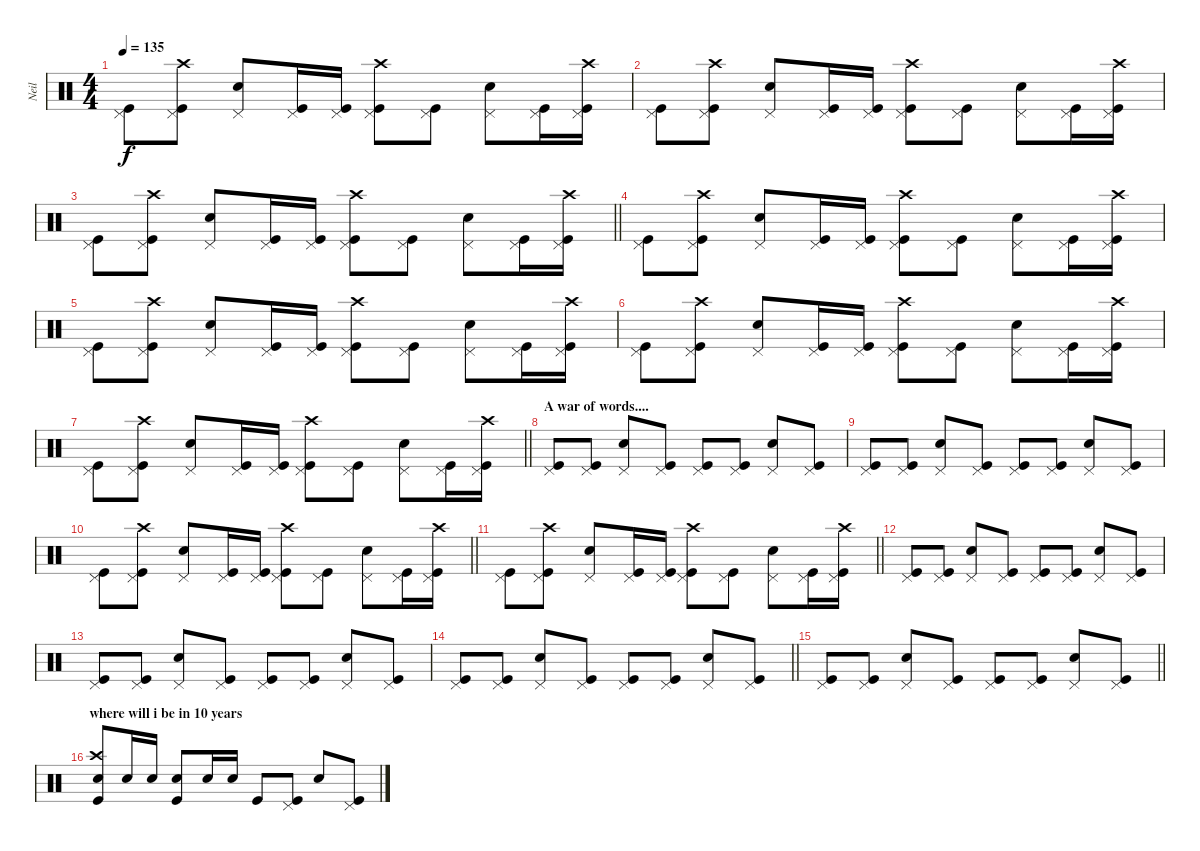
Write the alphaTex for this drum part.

\track ("Neil" "Neil") {instrument percussion}
\staff {score}
\articulation defaults
\ts (4 4)
\tempo 135
\clef neutral
\ks c
("Pedal Hi-Hat (hit)" "Kick (hit)").8{dy f} ("Crash high (hit)" "Pedal Hi-Hat (hit)" "Kick (hit)").8 ("Pedal Hi-Hat (hit)" "Snare (hit) 2").8 ("Pedal Hi-Hat (hit)" "Kick (hit)").16 ("Pedal Hi-Hat (hit)" "Kick (hit)").16 ("Crash high (hit)" "Pedal Hi-Hat (hit)" "Kick (hit)").8 ("Pedal Hi-Hat (hit)" "Kick (hit)").8 ("Pedal Hi-Hat (hit)" "Snare (hit) 2").8 ("Pedal Hi-Hat (hit)" "Kick (hit)").16 ("Crash high (hit)" "Pedal Hi-Hat (hit)" "Kick (hit)").16 |
("Pedal Hi-Hat (hit)" "Kick (hit)").8 ("Crash high (hit)" "Pedal Hi-Hat (hit)" "Kick (hit)").8 ("Pedal Hi-Hat (hit)" "Snare (hit) 2").8 ("Pedal Hi-Hat (hit)" "Kick (hit)").16 ("Pedal Hi-Hat (hit)" "Kick (hit)").16 ("Crash high (hit)" "Pedal Hi-Hat (hit)" "Kick (hit)").8 ("Pedal Hi-Hat (hit)" "Kick (hit)").8 ("Pedal Hi-Hat (hit)" "Snare (hit) 2").8 ("Pedal Hi-Hat (hit)" "Kick (hit)").16 ("Crash high (hit)" "Pedal Hi-Hat (hit)" "Kick (hit)").16 |
\barLineRight lightlight
("Pedal Hi-Hat (hit)" "Kick (hit)").8 ("Crash high (hit)" "Pedal Hi-Hat (hit)" "Kick (hit)").8 ("Pedal Hi-Hat (hit)" "Snare (hit) 2").8 ("Pedal Hi-Hat (hit)" "Kick (hit)").16 ("Pedal Hi-Hat (hit)" "Kick (hit)").16 ("Crash high (hit)" "Pedal Hi-Hat (hit)" "Kick (hit)").8 ("Pedal Hi-Hat (hit)" "Kick (hit)").8 ("Pedal Hi-Hat (hit)" "Snare (hit) 2").8 ("Pedal Hi-Hat (hit)" "Kick (hit)").16 ("Crash high (hit)" "Pedal Hi-Hat (hit)" "Kick (hit)").16 |
("Pedal Hi-Hat (hit)" "Kick (hit)").8 ("Crash high (hit)" "Pedal Hi-Hat (hit)" "Kick (hit)").8 ("Pedal Hi-Hat (hit)" "Snare (hit) 2").8 ("Pedal Hi-Hat (hit)" "Kick (hit)").16 ("Pedal Hi-Hat (hit)" "Kick (hit)").16 ("Crash high (hit)" "Pedal Hi-Hat (hit)" "Kick (hit)").8 ("Pedal Hi-Hat (hit)" "Kick (hit)").8 ("Pedal Hi-Hat (hit)" "Snare (hit) 2").8 ("Pedal Hi-Hat (hit)" "Kick (hit)").16 ("Crash high (hit)" "Pedal Hi-Hat (hit)" "Kick (hit)").16 |
("Pedal Hi-Hat (hit)" "Kick (hit)").8 ("Crash high (hit)" "Pedal Hi-Hat (hit)" "Kick (hit)").8 ("Pedal Hi-Hat (hit)" "Snare (hit) 2").8 ("Pedal Hi-Hat (hit)" "Kick (hit)").16 ("Pedal Hi-Hat (hit)" "Kick (hit)").16 ("Crash high (hit)" "Pedal Hi-Hat (hit)" "Kick (hit)").8 ("Pedal Hi-Hat (hit)" "Kick (hit)").8 ("Pedal Hi-Hat (hit)" "Snare (hit) 2").8 ("Pedal Hi-Hat (hit)" "Kick (hit)").16 ("Crash high (hit)" "Pedal Hi-Hat (hit)" "Kick (hit)").16 |
("Pedal Hi-Hat (hit)" "Kick (hit)").8 ("Crash high (hit)" "Pedal Hi-Hat (hit)" "Kick (hit)").8 ("Pedal Hi-Hat (hit)" "Snare (hit) 2").8 ("Pedal Hi-Hat (hit)" "Kick (hit)").16 ("Pedal Hi-Hat (hit)" "Kick (hit)").16 ("Crash high (hit)" "Pedal Hi-Hat (hit)" "Kick (hit)").8 ("Pedal Hi-Hat (hit)" "Kick (hit)").8 ("Pedal Hi-Hat (hit)" "Snare (hit) 2").8 ("Pedal Hi-Hat (hit)" "Kick (hit)").16 ("Crash high (hit)" "Pedal Hi-Hat (hit)" "Kick (hit)").16 |
\barLineRight lightlight
("Pedal Hi-Hat (hit)" "Kick (hit)").8 ("Crash high (hit)" "Pedal Hi-Hat (hit)" "Kick (hit)").8 ("Pedal Hi-Hat (hit)" "Snare (hit) 2").8 ("Pedal Hi-Hat (hit)" "Kick (hit)").16 ("Pedal Hi-Hat (hit)" "Kick (hit)").16 ("Crash high (hit)" "Pedal Hi-Hat (hit)" "Kick (hit)").8 ("Pedal Hi-Hat (hit)" "Kick (hit)").8 ("Pedal Hi-Hat (hit)" "Snare (hit) 2").8 ("Pedal Hi-Hat (hit)" "Kick (hit)").16 ("Crash high (hit)" "Pedal Hi-Hat (hit)" "Kick (hit)").16 |
\section ("" "A war of words....")
("Pedal Hi-Hat (hit)" "Kick (hit)").8 ("Pedal Hi-Hat (hit)" "Kick (hit)").8 ("Pedal Hi-Hat (hit)" "Snare (hit) 2").8 ("Pedal Hi-Hat (hit)" "Kick (hit)").8 ("Pedal Hi-Hat (hit)" "Kick (hit)").8 ("Pedal Hi-Hat (hit)" "Kick (hit)").8 ("Pedal Hi-Hat (hit)" "Snare (hit) 2").8 ("Pedal Hi-Hat (hit)" "Kick (hit)").8 |
("Pedal Hi-Hat (hit)" "Kick (hit)").8 ("Pedal Hi-Hat (hit)" "Kick (hit)").8 ("Pedal Hi-Hat (hit)" "Snare (hit) 2").8 ("Pedal Hi-Hat (hit)" "Kick (hit)").8 ("Pedal Hi-Hat (hit)" "Kick (hit)").8 ("Pedal Hi-Hat (hit)" "Kick (hit)").8 ("Pedal Hi-Hat (hit)" "Snare (hit) 2").8 ("Pedal Hi-Hat (hit)" "Kick (hit)").8 |
\barLineRight lightlight
("Pedal Hi-Hat (hit)" "Kick (hit)").8 ("Crash high (hit)" "Pedal Hi-Hat (hit)" "Kick (hit)").8 ("Pedal Hi-Hat (hit)" "Snare (hit) 2").8 ("Pedal Hi-Hat (hit)" "Kick (hit)").16 ("Pedal Hi-Hat (hit)" "Kick (hit)").16 ("Crash high (hit)" "Pedal Hi-Hat (hit)" "Kick (hit)").8 ("Pedal Hi-Hat (hit)" "Kick (hit)").8 ("Pedal Hi-Hat (hit)" "Snare (hit) 2").8 ("Pedal Hi-Hat (hit)" "Kick (hit)").16 ("Crash high (hit)" "Pedal Hi-Hat (hit)" "Kick (hit)").16 |
\barLineRight lightlight
("Pedal Hi-Hat (hit)" "Kick (hit)").8 ("Crash high (hit)" "Pedal Hi-Hat (hit)" "Kick (hit)").8 ("Pedal Hi-Hat (hit)" "Snare (hit) 2").8 ("Pedal Hi-Hat (hit)" "Kick (hit)").16 ("Pedal Hi-Hat (hit)" "Kick (hit)").16 ("Crash high (hit)" "Pedal Hi-Hat (hit)" "Kick (hit)").8 ("Pedal Hi-Hat (hit)" "Kick (hit)").8 ("Pedal Hi-Hat (hit)" "Snare (hit) 2").8 ("Pedal Hi-Hat (hit)" "Kick (hit)").16 ("Crash high (hit)" "Pedal Hi-Hat (hit)" "Kick (hit)").16 |
("Pedal Hi-Hat (hit)" "Kick (hit)").8 ("Pedal Hi-Hat (hit)" "Kick (hit)").8 ("Pedal Hi-Hat (hit)" "Snare (hit) 2").8 ("Pedal Hi-Hat (hit)" "Kick (hit)").8 ("Pedal Hi-Hat (hit)" "Kick (hit)").8 ("Pedal Hi-Hat (hit)" "Kick (hit)").8 ("Pedal Hi-Hat (hit)" "Snare (hit) 2").8 ("Pedal Hi-Hat (hit)" "Kick (hit)").8 |
("Pedal Hi-Hat (hit)" "Kick (hit)").8 ("Pedal Hi-Hat (hit)" "Kick (hit)").8 ("Pedal Hi-Hat (hit)" "Snare (hit) 2").8 ("Pedal Hi-Hat (hit)" "Kick (hit)").8 ("Pedal Hi-Hat (hit)" "Kick (hit)").8 ("Pedal Hi-Hat (hit)" "Kick (hit)").8 ("Pedal Hi-Hat (hit)" "Snare (hit) 2").8 ("Pedal Hi-Hat (hit)" "Kick (hit)").8 |
\barLineRight lightlight
("Pedal Hi-Hat (hit)" "Kick (hit)").8 ("Pedal Hi-Hat (hit)" "Kick (hit)").8 ("Pedal Hi-Hat (hit)" "Snare (hit) 2").8 ("Pedal Hi-Hat (hit)" "Kick (hit)").8 ("Pedal Hi-Hat (hit)" "Kick (hit)").8 ("Pedal Hi-Hat (hit)" "Kick (hit)").8 ("Pedal Hi-Hat (hit)" "Snare (hit) 2").8 ("Pedal Hi-Hat (hit)" "Kick (hit)").8 |
\barLineRight lightlight
("Pedal Hi-Hat (hit)" "Kick (hit)").8 ("Pedal Hi-Hat (hit)" "Kick (hit)").8 ("Pedal Hi-Hat (hit)" "Snare (hit) 2").8 ("Pedal Hi-Hat (hit)" "Kick (hit)").8 ("Pedal Hi-Hat (hit)" "Kick (hit)").8 ("Pedal Hi-Hat (hit)" "Kick (hit)").8 ("Pedal Hi-Hat (hit)" "Snare (hit) 2").8 ("Pedal Hi-Hat (hit)" "Kick (hit)").8 |
\section ("" "where will i be in 10 years")
("Crash high (hit)" "Snare (hit) 2" "Kick (hit)").8 "Snare (hit) 2".16 "Snare (hit) 2".16 ("Snare (hit) 2" "Kick (hit)").8 "Snare (hit) 2".16 "Snare (hit) 2".16 "Kick (hit)".8 ("Pedal Hi-Hat (hit)" "Kick (hit)").8 "Snare (hit) 2".8 ("Pedal Hi-Hat (hit)" "Kick (hit)").8
